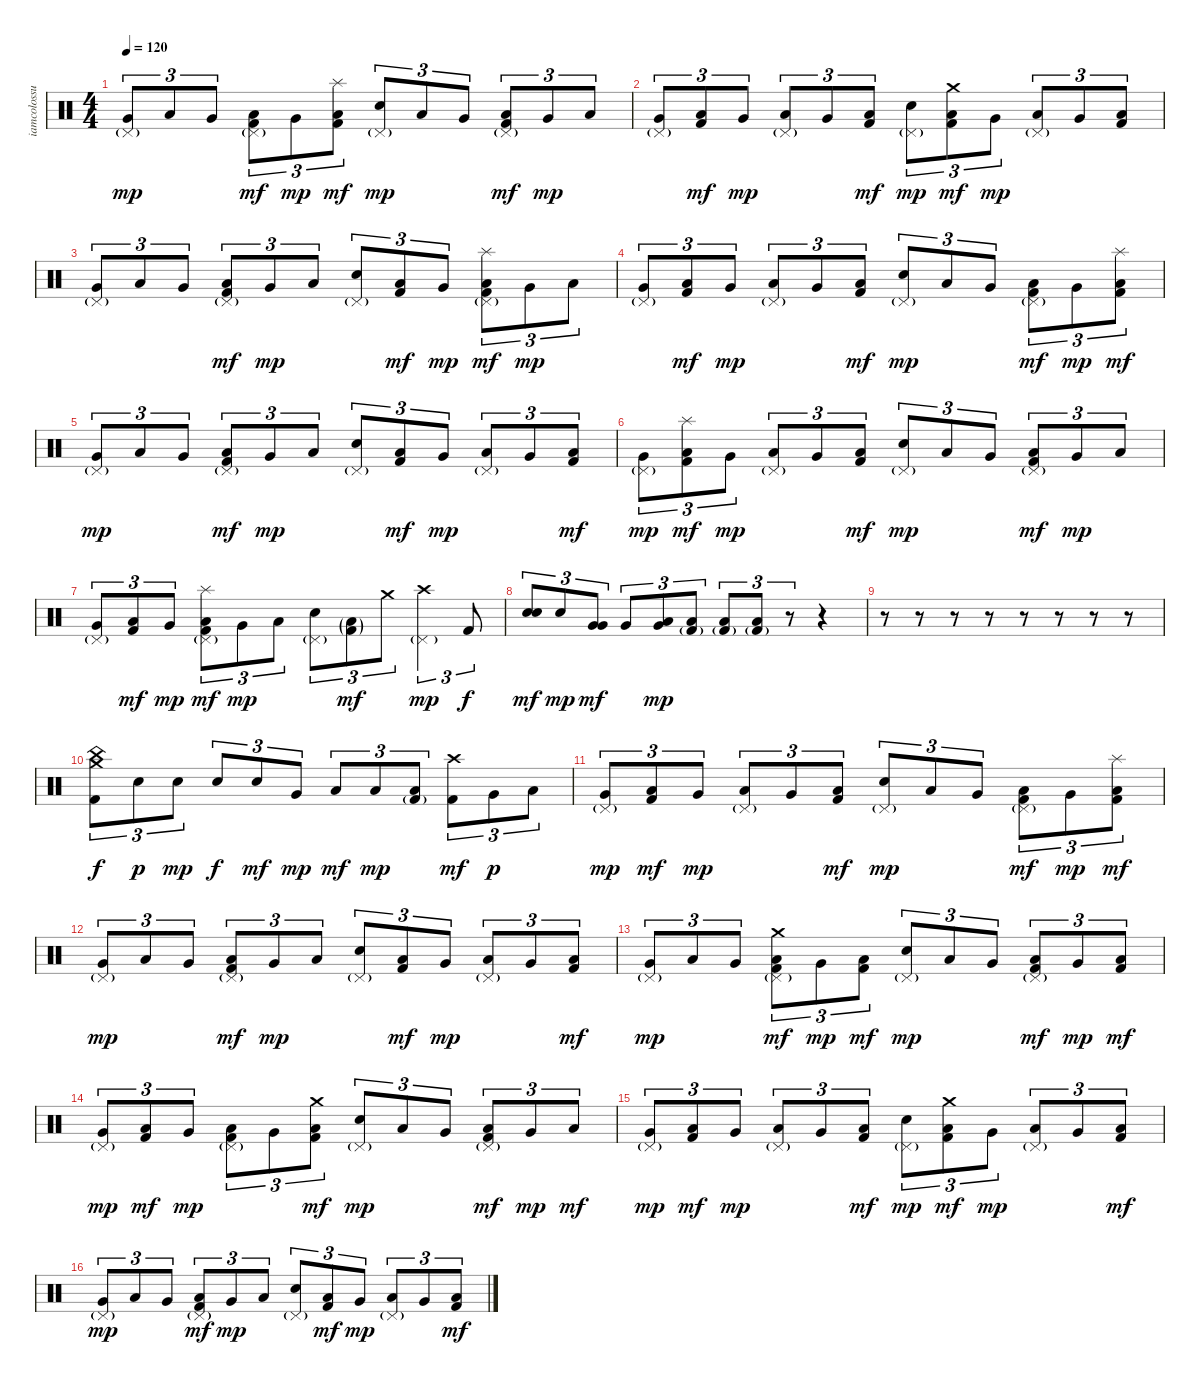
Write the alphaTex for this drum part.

\track ("iamcolossus(Thomas Haake)" "iamcolossu") {instrument percussion}
\staff {score}
\articulation defaults
\ts (4 4)
\tempo 120
\clef neutral
\ks c
("Pedal Hi-Hat (hit)"{g} "Very Low Tom (hit)").8{tu (3 2) dy mp} "Low Floor Tom (hit)".8{tu (3 2)} "Very Low Tom (hit)".8{tu (3 2)} ("Pedal Hi-Hat (hit)"{g} "Low Floor Tom (hit)" "Kick (hit) 2").8{tu (3 2) dy mf} "Very Low Tom (hit)".8{tu (3 2) dy mp} ("Splash (hit)" "Low Floor Tom (hit)" "Kick (hit) 2").8{tu (3 2) dy mf} ("Pedal Hi-Hat (hit)"{g} "Electric Snare (hit)").8{tu (3 2) dy mp} "Low Floor Tom (hit)".8{tu (3 2)} "Very Low Tom (hit)".8{tu (3 2)} ("Pedal Hi-Hat (hit)"{g} "Low Floor Tom (hit)" "Kick (hit) 2").8{tu (3 2) dy mf} "Very Low Tom (hit)".8{tu (3 2) dy mp} "Low Floor Tom (hit)".8{tu (3 2)} |
("Pedal Hi-Hat (hit)"{g} "Very Low Tom (hit)").8{tu (3 2)} ("Low Floor Tom (hit)" "Kick (hit) 2").8{tu (3 2) dy mf} "Very Low Tom (hit)".8{tu (3 2) dy mp} ("Pedal Hi-Hat (hit)"{g} "Low Floor Tom (hit)").8{tu (3 2)} "Very Low Tom (hit)".8{tu (3 2)} ("Low Floor Tom (hit)" "Kick (hit) 2").8{tu (3 2) dy mf} ("Pedal Hi-Hat (hit)"{g} "Electric Snare (hit)").8{tu (3 2) dy mp} ("Crash medium (hit)" "Low Floor Tom (hit)" "Kick (hit) 2").8{tu (3 2) dy mf} "Very Low Tom (hit)".8{tu (3 2) dy mp} ("Pedal Hi-Hat (hit)"{g} "Low Floor Tom (hit)").8{tu (3 2)} "Very Low Tom (hit)".8{tu (3 2)} ("Low Floor Tom (hit)" "Kick (hit) 2").8{tu (3 2)} |
("Pedal Hi-Hat (hit)"{g} "Very Low Tom (hit)").8{tu (3 2)} "Low Floor Tom (hit)".8{tu (3 2)} "Very Low Tom (hit)".8{tu (3 2)} ("Pedal Hi-Hat (hit)"{g} "Low Floor Tom (hit)" "Kick (hit) 2").8{tu (3 2) dy mf} "Very Low Tom (hit)".8{tu (3 2) dy mp} "Low Floor Tom (hit)".8{tu (3 2)} ("Pedal Hi-Hat (hit)"{g} "Electric Snare (hit)").8{tu (3 2)} ("Low Floor Tom (hit)" "Kick (hit) 2").8{tu (3 2) dy mf} "Very Low Tom (hit)".8{tu (3 2) dy mp} ("Pedal Hi-Hat (hit)"{g} "Splash (hit)" "Low Floor Tom (hit)" "Kick (hit) 2").8{tu (3 2) dy mf} "Very Low Tom (hit)".8{tu (3 2) dy mp} "Low Floor Tom (hit)".8{tu (3 2)} |
("Pedal Hi-Hat (hit)"{g} "Very Low Tom (hit)").8{tu (3 2)} ("Low Floor Tom (hit)" "Kick (hit) 2").8{tu (3 2) dy mf} "Very Low Tom (hit)".8{tu (3 2) dy mp} ("Pedal Hi-Hat (hit)"{g} "Low Floor Tom (hit)").8{tu (3 2)} "Very Low Tom (hit)".8{tu (3 2)} ("Low Floor Tom (hit)" "Kick (hit) 2").8{tu (3 2) dy mf} ("Pedal Hi-Hat (hit)"{g} "Electric Snare (hit)").8{tu (3 2) dy mp} "Low Floor Tom (hit)".8{tu (3 2)} "Very Low Tom (hit)".8{tu (3 2)} ("Pedal Hi-Hat (hit)"{g} "Low Floor Tom (hit)" "Kick (hit) 2").8{tu (3 2) dy mf} "Very Low Tom (hit)".8{tu (3 2) dy mp} ("Splash (hit)" "Low Floor Tom (hit)" "Kick (hit) 2").8{tu (3 2) dy mf} |
("Pedal Hi-Hat (hit)"{g} "Very Low Tom (hit)").8{tu (3 2) dy mp} "Low Floor Tom (hit)".8{tu (3 2)} "Very Low Tom (hit)".8{tu (3 2)} ("Pedal Hi-Hat (hit)"{g} "Low Floor Tom (hit)" "Kick (hit) 2").8{tu (3 2) dy mf} "Very Low Tom (hit)".8{tu (3 2) dy mp} "Low Floor Tom (hit)".8{tu (3 2)} ("Pedal Hi-Hat (hit)"{g} "Electric Snare (hit)").8{tu (3 2)} ("Low Floor Tom (hit)" "Kick (hit) 2").8{tu (3 2) dy mf} "Very Low Tom (hit)".8{tu (3 2) dy mp} ("Pedal Hi-Hat (hit)"{g} "Low Floor Tom (hit)").8{tu (3 2)} "Very Low Tom (hit)".8{tu (3 2)} ("Low Floor Tom (hit)" "Kick (hit) 2").8{tu (3 2) dy mf} |
("Pedal Hi-Hat (hit)"{g} "Very Low Tom (hit)").8{tu (3 2) dy mp} ("Splash (hit)" "Low Floor Tom (hit)" "Kick (hit) 2").8{tu (3 2) dy mf} "Very Low Tom (hit)".8{tu (3 2) dy mp} ("Pedal Hi-Hat (hit)"{g} "Low Floor Tom (hit)").8{tu (3 2)} "Very Low Tom (hit)".8{tu (3 2)} ("Low Floor Tom (hit)" "Kick (hit) 2").8{tu (3 2) dy mf} ("Pedal Hi-Hat (hit)"{g} "Electric Snare (hit)").8{tu (3 2) dy mp} "Low Floor Tom (hit)".8{tu (3 2)} "Very Low Tom (hit)".8{tu (3 2)} ("Pedal Hi-Hat (hit)"{g} "Low Floor Tom (hit)" "Kick (hit) 2").8{tu (3 2) dy mf} "Very Low Tom (hit)".8{tu (3 2) dy mp} "Low Floor Tom (hit)".8{tu (3 2)} |
("Pedal Hi-Hat (hit)"{g} "Very Low Tom (hit)").8{tu (3 2)} ("Low Floor Tom (hit)" "Kick (hit) 2").8{tu (3 2) dy mf} "Very Low Tom (hit)".8{tu (3 2) dy mp} ("Pedal Hi-Hat (hit)"{g} "Splash (hit)" "Low Floor Tom (hit)" "Kick (hit) 2").8{tu (3 2) dy mf} "Very Low Tom (hit)".8{tu (3 2) dy mp} "Low Floor Tom (hit)".8{tu (3 2)} ("Pedal Hi-Hat (hit)"{g} "Electric Snare (hit)").8{tu (3 2)} ("Low Floor Tom (hit)"{g} "Kick (hit) 2"{g}).8{tu (3 2) dy mf} "Crash medium (hit)".8{tu (3 2)} ("Pedal Hi-Hat (hit)"{g} "Crash high (hit)").4{tu (3 2) dy mp} "Kick (hit) 2".8{tu (3 2) dy f} |
("Electric Snare (hit)" "Electric Snare (hit)").8{tu (3 2) bd 120 dy mf} "Electric Snare (hit)".8{tu (3 2) dy mp} ("Very Low Tom (hit)" "Very Low Tom (hit)").8{tu (3 2) bd 60 dy mf} "Very Low Tom (hit)".8{tu (3 2)} ("Very Low Tom (hit)" "Low Floor Tom (hit)").8{tu (3 2) dy mp} ("Low Floor Tom (hit)" "Kick (hit) 2"{g}).8{tu (3 2)} ("Low Floor Tom (hit)" "Kick (hit) 2"{g}).8{tu (3 2)} ("Low Floor Tom (hit)" "Kick (hit) 2"{g}).8{tu (3 2)} r.8{tu (3 2)} r.4 |
r.8 r.8 r.8 r.8 r.8 r.8 r.8 r.8 |
("Crash medium (hit)" "China (hit)" "Kick (hit) 2").8{tu (3 2) dy f} "Electric Snare (hit)".8{tu (3 2) dy p} "Electric Snare (hit)".8{tu (3 2) dy mp} "Electric Snare (hit)".8{tu (3 2) dy f} "Electric Snare (hit)".8{tu (3 2) dy mf} "Very Low Tom (hit)".8{tu (3 2) dy mp} "Low Floor Tom (hit)".8{tu (3 2) dy mf} "Low Floor Tom (hit)".8{tu (3 2) dy mp} ("Low Floor Tom (hit)" "Kick (hit) 2"{g}).8{tu (3 2)} ("Crash high (hit)" "Kick (hit) 2").8{tu (3 2) dy mf} "Very Low Tom (hit)".8{tu (3 2) dy p} "Low Floor Tom (hit)".8{tu (3 2)} |
("Pedal Hi-Hat (hit)"{g} "Very Low Tom (hit)").8{tu (3 2) dy mp} ("Low Floor Tom (hit)" "Kick (hit) 2").8{tu (3 2) dy mf} "Very Low Tom (hit)".8{tu (3 2) dy mp} ("Pedal Hi-Hat (hit)"{g} "Low Floor Tom (hit)").8{tu (3 2)} "Very Low Tom (hit)".8{tu (3 2)} ("Low Floor Tom (hit)" "Kick (hit) 2").8{tu (3 2) dy mf} ("Pedal Hi-Hat (hit)"{g} "Electric Snare (hit)").8{tu (3 2) dy mp} "Low Floor Tom (hit)".8{tu (3 2)} "Very Low Tom (hit)".8{tu (3 2)} ("Pedal Hi-Hat (hit)"{g} "Low Floor Tom (hit)" "Kick (hit) 2").8{tu (3 2) dy mf} "Very Low Tom (hit)".8{tu (3 2) dy mp} ("Splash (hit)" "Low Floor Tom (hit)" "Kick (hit) 2").8{tu (3 2) dy mf} |
("Pedal Hi-Hat (hit)"{g} "Very Low Tom (hit)").8{tu (3 2) dy mp} "Low Floor Tom (hit)".8{tu (3 2)} "Very Low Tom (hit)".8{tu (3 2)} ("Pedal Hi-Hat (hit)"{g} "Low Floor Tom (hit)" "Kick (hit) 2").8{tu (3 2) dy mf} "Very Low Tom (hit)".8{tu (3 2) dy mp} "Low Floor Tom (hit)".8{tu (3 2)} ("Pedal Hi-Hat (hit)"{g} "Electric Snare (hit)").8{tu (3 2)} ("Low Floor Tom (hit)" "Kick (hit) 2").8{tu (3 2) dy mf} "Very Low Tom (hit)".8{tu (3 2) dy mp} ("Pedal Hi-Hat (hit)"{g} "Low Floor Tom (hit)").8{tu (3 2)} "Very Low Tom (hit)".8{tu (3 2)} ("Low Floor Tom (hit)" "Kick (hit) 2").8{tu (3 2) dy mf} |
("Pedal Hi-Hat (hit)"{g} "Very Low Tom (hit)").8{tu (3 2) dy mp} "Low Floor Tom (hit)".8{tu (3 2)} "Very Low Tom (hit)".8{tu (3 2)} ("Pedal Hi-Hat (hit)"{g} "Crash medium (hit)" "Low Floor Tom (hit)" "Kick (hit) 2").8{tu (3 2) dy mf} "Very Low Tom (hit)".8{tu (3 2) dy mp} ("Low Floor Tom (hit)" "Kick (hit) 2").8{tu (3 2) dy mf} ("Pedal Hi-Hat (hit)"{g} "Electric Snare (hit)").8{tu (3 2) dy mp} "Low Floor Tom (hit)".8{tu (3 2)} "Very Low Tom (hit)".8{tu (3 2)} ("Pedal Hi-Hat (hit)"{g} "Low Floor Tom (hit)" "Kick (hit) 2").8{tu (3 2) dy mf} "Very Low Tom (hit)".8{tu (3 2) dy mp} ("Low Floor Tom (hit)" "Kick (hit) 2").8{tu (3 2) dy mf} |
("Pedal Hi-Hat (hit)"{g} "Very Low Tom (hit)").8{tu (3 2) dy mp} ("Low Floor Tom (hit)" "Kick (hit) 2").8{tu (3 2) dy mf} "Very Low Tom (hit)".8{tu (3 2) dy mp} ("Pedal Hi-Hat (hit)"{g} "Low Floor Tom (hit)" "Kick (hit) 2").8{tu (3 2)} "Very Low Tom (hit)".8{tu (3 2)} ("Crash medium (hit)" "Low Floor Tom (hit)" "Kick (hit) 2").8{tu (3 2) dy mf} ("Pedal Hi-Hat (hit)"{g} "Electric Snare (hit)").8{tu (3 2) dy mp} "Low Floor Tom (hit)".8{tu (3 2)} "Very Low Tom (hit)".8{tu (3 2)} ("Pedal Hi-Hat (hit)"{g} "Low Floor Tom (hit)" "Kick (hit) 2").8{tu (3 2) dy mf} "Very Low Tom (hit)".8{tu (3 2) dy mp} "Low Floor Tom (hit)".8{tu (3 2) dy mf} |
("Pedal Hi-Hat (hit)"{g} "Very Low Tom (hit)").8{tu (3 2) dy mp} ("Low Floor Tom (hit)" "Kick (hit) 2").8{tu (3 2) dy mf} "Very Low Tom (hit)".8{tu (3 2) dy mp} ("Pedal Hi-Hat (hit)"{g} "Low Floor Tom (hit)").8{tu (3 2)} "Very Low Tom (hit)".8{tu (3 2)} ("Low Floor Tom (hit)" "Kick (hit) 2").8{tu (3 2) dy mf} ("Pedal Hi-Hat (hit)"{g} "Electric Snare (hit)").8{tu (3 2) dy mp} ("Crash medium (hit)" "Low Floor Tom (hit)" "Kick (hit) 2").8{tu (3 2) dy mf} "Very Low Tom (hit)".8{tu (3 2) dy mp} ("Pedal Hi-Hat (hit)"{g} "Low Floor Tom (hit)").8{tu (3 2)} "Very Low Tom (hit)".8{tu (3 2)} ("Low Floor Tom (hit)" "Kick (hit) 2").8{tu (3 2) dy mf} |
("Pedal Hi-Hat (hit)"{g} "Very Low Tom (hit)").8{tu (3 2) dy mp} "Low Floor Tom (hit)".8{tu (3 2)} "Very Low Tom (hit)".8{tu (3 2)} ("Pedal Hi-Hat (hit)"{g} "Low Floor Tom (hit)" "Kick (hit) 2").8{tu (3 2) dy mf} "Very Low Tom (hit)".8{tu (3 2) dy mp} "Low Floor Tom (hit)".8{tu (3 2)} ("Pedal Hi-Hat (hit)"{g} "Electric Snare (hit)").8{tu (3 2)} ("Low Floor Tom (hit)" "Kick (hit) 2").8{tu (3 2) dy mf} "Very Low Tom (hit)".8{tu (3 2) dy mp} ("Pedal Hi-Hat (hit)"{g} "Low Floor Tom (hit)").8{tu (3 2)} "Very Low Tom (hit)".8{tu (3 2)} ("Low Floor Tom (hit)" "Kick (hit) 2").8{tu (3 2) dy mf}
